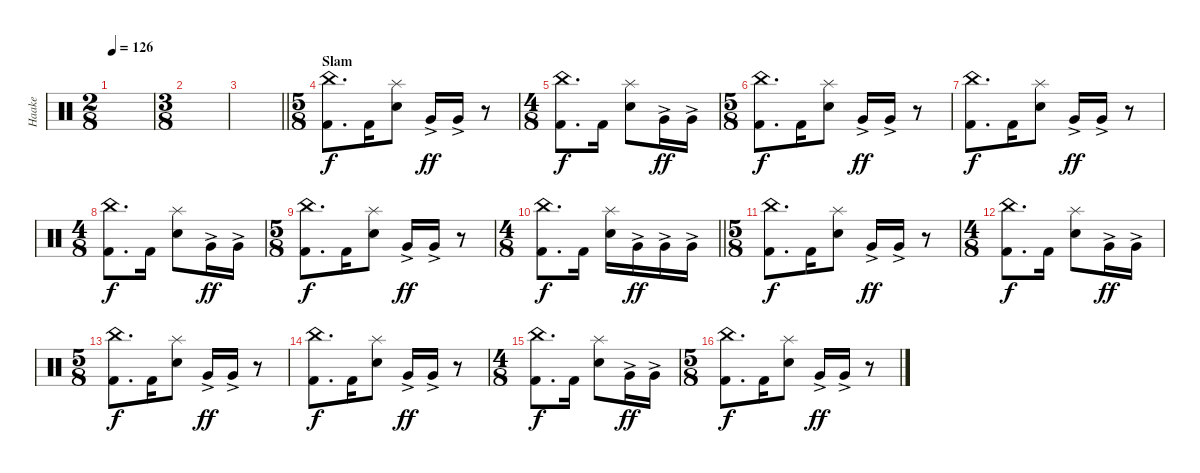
\track ("Haake" "Haake") {instrument percussion}
\staff {score}
\articulation defaults
\ts (2 8)
\tempo 126
\clef neutral
\ks c
|
\ts (3 8)
|
\barLineRight lightlight
|
\ts (5 8)
\section ("" "Slam")
("China (hit)" "Kick (hit) 2").8{d} "Kick (hit) 2".16 ("Splash (hit)" "Electric Snare (hit)").8 "Very Low Tom (hit)"{ac}.16{dy ff} "Very Low Tom (hit)"{ac}.16 r.8 |
\ts (4 8)
("China (hit)" "Kick (hit) 2").8{d dy f} "Kick (hit) 2".16 ("Splash (hit)" "Electric Snare (hit)").8 "Very Low Tom (hit)"{ac}.16{dy ff} "Very Low Tom (hit)"{ac}.16 |
\ts (5 8)
("China (hit)" "Kick (hit) 2").8{d dy f} "Kick (hit) 2".16 ("Splash (hit)" "Electric Snare (hit)").8 "Very Low Tom (hit)"{ac}.16{dy ff} "Very Low Tom (hit)"{ac}.16 r.8 |
("China (hit)" "Kick (hit) 2").8{d dy f} "Kick (hit) 2".16 ("Splash (hit)" "Electric Snare (hit)").8 "Very Low Tom (hit)"{ac}.16{dy ff} "Very Low Tom (hit)"{ac}.16 r.8 |
\ts (4 8)
("China (hit)" "Kick (hit) 2").8{d dy f} "Kick (hit) 2".16 ("Splash (hit)" "Electric Snare (hit)").8 "Very Low Tom (hit)"{ac}.16{dy ff} "Very Low Tom (hit)"{ac}.16 |
\ts (5 8)
("China (hit)" "Kick (hit) 2").8{d dy f} "Kick (hit) 2".16 ("Splash (hit)" "Electric Snare (hit)").8 "Very Low Tom (hit)"{ac}.16{dy ff} "Very Low Tom (hit)"{ac}.16 r.8 |
\ts (4 8)
\barLineRight lightlight
("China (hit)" "Kick (hit) 2").8{d dy f} "Kick (hit) 2".16 ("Splash (hit)" "Electric Snare (hit)").16 "Very Low Tom (hit)"{ac}.16{dy ff} "Very Low Tom (hit)"{ac}.16 "Very Low Tom (hit)"{ac}.16 |
\ts (5 8)
("China (hit)" "Kick (hit) 2").8{d dy f} "Kick (hit) 2".16 ("Splash (hit)" "Electric Snare (hit)").8 "Very Low Tom (hit)"{ac}.16{dy ff} "Very Low Tom (hit)"{ac}.16 r.8 |
\ts (4 8)
("China (hit)" "Kick (hit) 2").8{d dy f} "Kick (hit) 2".16 ("Splash (hit)" "Electric Snare (hit)").8 "Very Low Tom (hit)"{ac}.16{dy ff} "Very Low Tom (hit)"{ac}.16 |
\ts (5 8)
("China (hit)" "Kick (hit) 2").8{d dy f} "Kick (hit) 2".16 ("Splash (hit)" "Electric Snare (hit)").8 "Very Low Tom (hit)"{ac}.16{dy ff} "Very Low Tom (hit)"{ac}.16 r.8 |
("China (hit)" "Kick (hit) 2").8{d dy f} "Kick (hit) 2".16 ("Splash (hit)" "Electric Snare (hit)").8 "Very Low Tom (hit)"{ac}.16{dy ff} "Very Low Tom (hit)"{ac}.16 r.8 |
\ts (4 8)
("China (hit)" "Kick (hit) 2").8{d dy f} "Kick (hit) 2".16 ("Splash (hit)" "Electric Snare (hit)").8 "Very Low Tom (hit)"{ac}.16{dy ff} "Very Low Tom (hit)"{ac}.16 |
\ts (5 8)
("China (hit)" "Kick (hit) 2").8{d dy f} "Kick (hit) 2".16 ("Splash (hit)" "Electric Snare (hit)").8 "Very Low Tom (hit)"{ac}.16{dy ff} "Very Low Tom (hit)"{ac}.16 r.8
